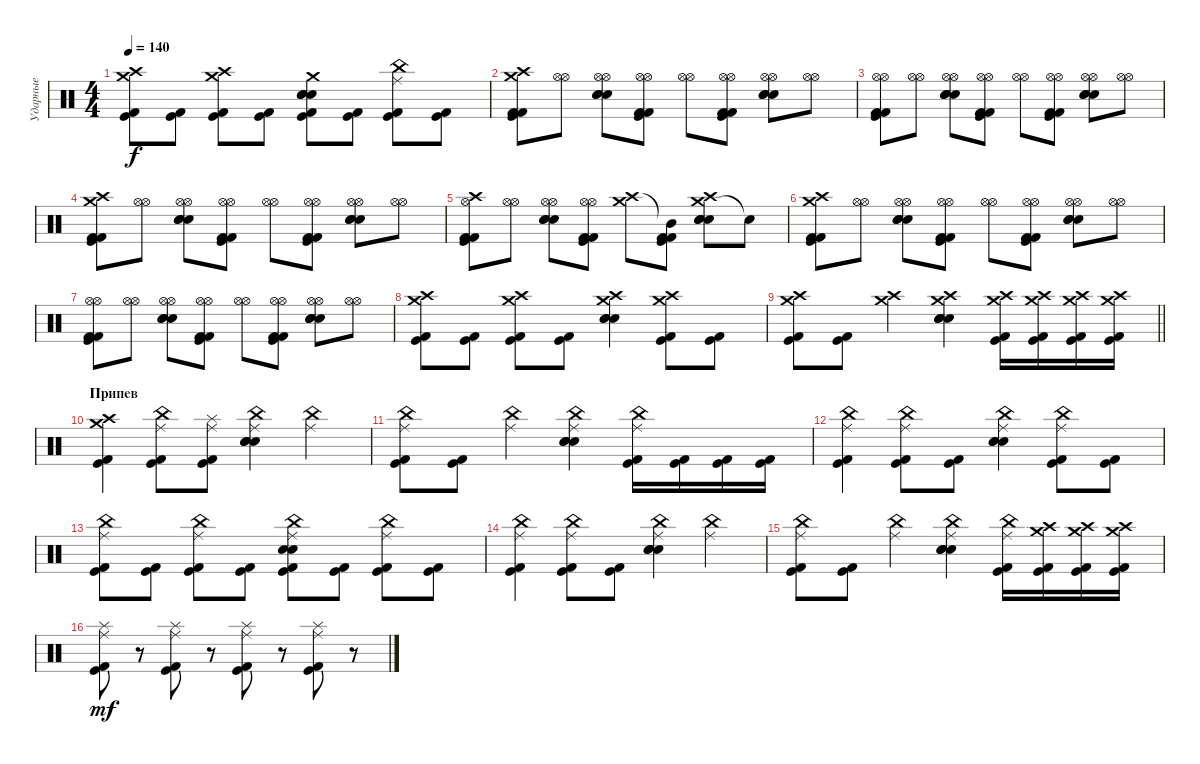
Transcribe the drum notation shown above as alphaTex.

\track ("Ударные" "Ударные") {instrument percussion}
\staff {score}
\articulation defaults
\ts (4 4)
\tempo 140
\clef neutral
\ks c
("Crash high (hit)" "Crash medium (hit)" "Kick (hit)" "Kick (hit) 2").8{dy f} ("Kick (hit)" "Kick (hit) 2").8 ("Crash high (hit)" "Crash medium (hit)" "Kick (hit)" "Kick (hit) 2").8 ("Kick (hit)" "Kick (hit) 2").8 ("Crash medium (hit)" "Electric Snare (hit)" "Snare (hit) 2" "Electric Snare (hit)" "Kick (hit)" "Kick (hit) 2").8 ("Kick (hit)" "Kick (hit) 2").8 ("China (hit)" "Ride (middle)" "Kick (hit)" "Kick (hit) 2").8 ("Kick (hit)" "Kick (hit) 2").8 |
("Crash high (hit)" "Crash medium (hit)" "Kick (hit) 2" "Kick (hit)" "Kick (hit) 2").8 ("Hi-Hat (open)" "Hi-Hat (open)").8 ("Hi-Hat (open)" "Hi-Hat (open)" "Electric Snare (hit)" "Snare (hit) 2" "Electric Snare (hit)").8 ("Hi-Hat (open)" "Hi-Hat (open)" "Kick (hit) 2" "Kick (hit)" "Kick (hit) 2").8 ("Hi-Hat (open)" "Hi-Hat (open)").8 ("Hi-Hat (open)" "Hi-Hat (open)" "Kick (hit) 2" "Kick (hit)" "Kick (hit) 2").8 ("Hi-Hat (open)" "Hi-Hat (open)" "Electric Snare (hit)" "Snare (hit) 2" "Electric Snare (hit)").8 ("Hi-Hat (open)" "Hi-Hat (open)").8 |
("Hi-Hat (open)" "Hi-Hat (open)" "Kick (hit) 2" "Kick (hit)" "Kick (hit) 2").8 ("Hi-Hat (open)" "Hi-Hat (open)").8 ("Hi-Hat (open)" "Hi-Hat (open)" "Electric Snare (hit)" "Snare (hit) 2" "Electric Snare (hit)").8 ("Hi-Hat (open)" "Hi-Hat (open)" "Kick (hit) 2" "Kick (hit)" "Kick (hit) 2").8 ("Hi-Hat (open)" "Hi-Hat (open)").8 ("Hi-Hat (open)" "Hi-Hat (open)" "Kick (hit) 2" "Kick (hit)" "Kick (hit) 2").8 ("Hi-Hat (open)" "Hi-Hat (open)" "Electric Snare (hit)" "Snare (hit) 2" "Electric Snare (hit)").8 ("Hi-Hat (open)" "Hi-Hat (open)").8 |
("Crash high (hit)" "Crash medium (hit)" "Kick (hit) 2" "Kick (hit)" "Kick (hit) 2").8 ("Hi-Hat (open)" "Hi-Hat (open)").8 ("Hi-Hat (open)" "Hi-Hat (open)" "Electric Snare (hit)" "Snare (hit) 2" "Electric Snare (hit)").8 ("Hi-Hat (open)" "Hi-Hat (open)" "Kick (hit) 2" "Kick (hit)" "Kick (hit) 2").8 ("Hi-Hat (open)" "Hi-Hat (open)").8 ("Hi-Hat (open)" "Hi-Hat (open)" "Kick (hit) 2" "Kick (hit)" "Kick (hit) 2").8 ("Hi-Hat (open)" "Hi-Hat (open)" "Electric Snare (hit)" "Snare (hit) 2" "Electric Snare (hit)").8 ("Hi-Hat (open)" "Hi-Hat (open)").8 |
("Crash high (hit)" "Hi-Hat (open)" "Kick (hit) 2" "Kick (hit)" "Kick (hit) 2").8 ("Hi-Hat (open)" "Hi-Hat (open)").8 ("Hi-Hat (open)" "Hi-Hat (open)" "Electric Snare (hit)" "Snare (hit) 2" "Electric Snare (hit)").8 ("Hi-Hat (open)" "Hi-Hat (open)" "Kick (hit) 2" "Kick (hit)" "Kick (hit) 2").8 ("Crash high (hit)" "Crash medium (hit)").8 ("Mid Tom (hit)"{t} "Kick (hit) 2" "Kick (hit)" "Kick (hit) 2").8 ("Crash medium (hit)" "Crash high (hit)" "Electric Snare (hit)" "Snare (hit) 2" "Electric Snare (hit)").8 "Snare (hit)"{t}.8 |
("Crash high (hit)" "Crash medium (hit)" "Kick (hit) 2" "Kick (hit)" "Kick (hit) 2").8 ("Hi-Hat (open)" "Hi-Hat (open)").8 ("Hi-Hat (open)" "Hi-Hat (open)" "Electric Snare (hit)" "Snare (hit) 2" "Electric Snare (hit)").8 ("Hi-Hat (open)" "Hi-Hat (open)" "Kick (hit) 2" "Kick (hit)" "Kick (hit) 2").8 ("Hi-Hat (open)" "Hi-Hat (open)").8 ("Hi-Hat (open)" "Hi-Hat (open)" "Kick (hit) 2" "Kick (hit)" "Kick (hit) 2").8 ("Hi-Hat (open)" "Hi-Hat (open)" "Electric Snare (hit)" "Snare (hit) 2" "Electric Snare (hit)").8 ("Hi-Hat (open)" "Hi-Hat (open)").8 |
("Hi-Hat (open)" "Hi-Hat (open)" "Kick (hit) 2" "Kick (hit)" "Kick (hit) 2").8 ("Hi-Hat (open)" "Hi-Hat (open)").8 ("Hi-Hat (open)" "Hi-Hat (open)" "Electric Snare (hit)" "Snare (hit) 2" "Electric Snare (hit)").8 ("Hi-Hat (open)" "Hi-Hat (open)" "Kick (hit) 2" "Kick (hit)" "Kick (hit) 2").8 ("Hi-Hat (open)" "Hi-Hat (open)").8 ("Hi-Hat (open)" "Hi-Hat (open)" "Kick (hit) 2" "Kick (hit)" "Kick (hit) 2").8 ("Hi-Hat (open)" "Hi-Hat (open)" "Electric Snare (hit)" "Snare (hit) 2" "Electric Snare (hit)").8 ("Hi-Hat (open)" "Hi-Hat (open)").8 |
("Crash high (hit)" "Crash medium (hit)" "Kick (hit)" "Kick (hit) 2").8 ("Kick (hit)" "Kick (hit) 2").8 ("Crash high (hit)" "Crash medium (hit)" "Kick (hit)" "Kick (hit) 2").8 ("Kick (hit)" "Kick (hit) 2").8 ("Crash high (hit)" "Crash medium (hit)" "Snare (hit) 2" "Electric Snare (hit)" "Electric Snare (hit)").4 ("Crash high (hit)" "Crash medium (hit)" "Kick (hit)" "Kick (hit) 2").8 ("Kick (hit)" "Kick (hit) 2").8 |
\barLineRight lightlight
("Crash high (hit)" "Crash medium (hit)" "Kick (hit)" "Kick (hit) 2").8 ("Kick (hit)" "Kick (hit) 2").8 ("Crash high (hit)" "Crash medium (hit)").4 ("Crash high (hit)" "Crash medium (hit)" "Electric Snare (hit)" "Snare (hit) 2" "Electric Snare (hit)").4 ("Crash high (hit)" "Crash medium (hit)" "Kick (hit)" "Kick (hit) 2").16 ("Crash medium (hit)" "Crash high (hit)" "Kick (hit)" "Kick (hit) 2").16 ("Crash medium (hit)" "Crash high (hit)" "Kick (hit)" "Kick (hit) 2").16 ("Crash medium (hit)" "Crash high (hit)" "Kick (hit)" "Kick (hit) 2").16 |
\section ("" "Припев")
("Crash medium (hit)" "Crash high (hit)" "Kick (hit)" "Kick (hit) 2").4 ("China (hit)" "Ride (middle)" "Kick (hit)" "Kick (hit) 2").8 ("Splash (hit)" "Ride (middle)" "Kick (hit)" "Kick (hit) 2").8 ("China (hit)" "Ride (middle)" "Snare (hit) 2" "Electric Snare (hit)" "Electric Snare (hit)").4 ("China (hit)" "Ride (middle)").4 |
("China (hit)" "Ride (middle)" "Kick (hit)" "Kick (hit) 2").8 ("Kick (hit)" "Kick (hit) 2").8 ("China (hit)" "Ride (middle)").4 ("China (hit)" "Ride (middle)" "Snare (hit) 2" "Electric Snare (hit)" "Electric Snare (hit)").4 ("China (hit)" "Ride (middle)" "Kick (hit)" "Kick (hit) 2").16 ("Kick (hit)" "Kick (hit) 2").16 ("Kick (hit)" "Kick (hit) 2").16 ("Kick (hit)" "Kick (hit) 2").16 |
("China (hit)" "Ride (middle)" "Kick (hit)" "Kick (hit) 2").4 ("China (hit)" "Ride (middle)" "Kick (hit)" "Kick (hit) 2").8 ("Kick (hit)" "Kick (hit) 2").8 ("China (hit)" "Ride (middle)" "Snare (hit) 2" "Electric Snare (hit)" "Electric Snare (hit)").4 ("China (hit)" "Ride (middle)" "Kick (hit)" "Kick (hit) 2").8 ("Kick (hit)" "Kick (hit) 2").8 |
("China (hit)" "Ride (middle)" "Kick (hit)" "Kick (hit) 2").8 ("Kick (hit)" "Kick (hit) 2").8 ("China (hit)" "Ride (middle)" "Kick (hit)" "Kick (hit) 2").8 ("Kick (hit)" "Kick (hit) 2").8 ("China (hit)" "Ride (middle)" "Snare (hit) 2" "Electric Snare (hit)" "Kick (hit)" "Kick (hit) 2").8 ("Kick (hit)" "Kick (hit) 2").8 ("China (hit)" "Ride (middle)" "Kick (hit)" "Kick (hit) 2").8 ("Kick (hit)" "Kick (hit) 2").8 |
("China (hit)" "Ride (middle)" "Kick (hit)" "Kick (hit) 2").4 ("China (hit)" "Ride (middle)" "Kick (hit)" "Kick (hit) 2").8 ("Kick (hit)" "Kick (hit) 2").8 ("China (hit)" "Ride (middle)" "Electric Snare (hit)" "Electric Snare (hit)" "Snare (hit) 2").4 ("China (hit)" "Ride (middle)").4 |
("China (hit)" "Ride (middle)" "Kick (hit)" "Kick (hit) 2").8 ("Kick (hit)" "Kick (hit) 2").8 ("China (hit)" "Ride (middle)").4 ("China (hit)" "Ride (middle)" "Electric Snare (hit)" "Electric Snare (hit)" "Snare (hit) 2").4 ("China (hit)" "Ride (middle)" "Kick (hit)" "Kick (hit) 2").16 ("Crash medium (hit)" "Crash high (hit)" "Kick (hit)" "Kick (hit) 2").16 ("Crash high (hit)" "Crash medium (hit)" "Kick (hit)" "Kick (hit) 2").16 ("Crash medium (hit)" "Crash high (hit)" "Kick (hit)" "Kick (hit) 2").16 |
("Ride (middle)" "Splash (hit)" "Kick (hit) 2" "Kick (hit)").8{dy mf} r.8 ("Ride (middle)" "Splash (hit)" "Kick (hit) 2" "Kick (hit)").8 r.8 ("Ride (middle)" "Splash (hit)" "Kick (hit) 2" "Kick (hit)").8 r.8 ("Ride (middle)" "Splash (hit)" "Kick (hit) 2" "Kick (hit)").8 r.8
